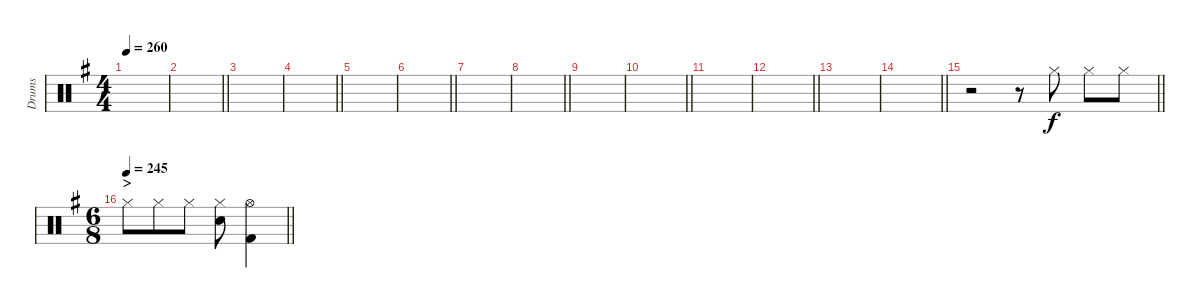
\track ("Drums" "Drums") {instrument percussion}
\staff {score}
\articulation defaults
\ts (4 4)
\tempo 260
\clef neutral
\ks eminor
|
\barLineRight lightlight
|
|
\barLineRight lightlight
|
|
\barLineRight lightlight
|
|
\barLineRight lightlight
|
|
\barLineRight lightlight
|
|
\barLineRight lightlight
|
|
\barLineRight lightlight
|
\barLineRight lightlight
r.2 r.8 "Hi-Hat (closed)".8{dy f} "Hi-Hat (closed)".8 "Hi-Hat (closed)".8 |
\ts (6 8)
\section ("" ">")
\tempo 245
\barLineRight lightlight "Hi-Hat (closed)".8 "Hi-Hat (closed)".8 "Hi-Hat (closed)".8
("Hi-Hat (closed)" "Electric Snare (hit)").8 ("Hi-Hat (open)" "Kick (hit) 2").4
